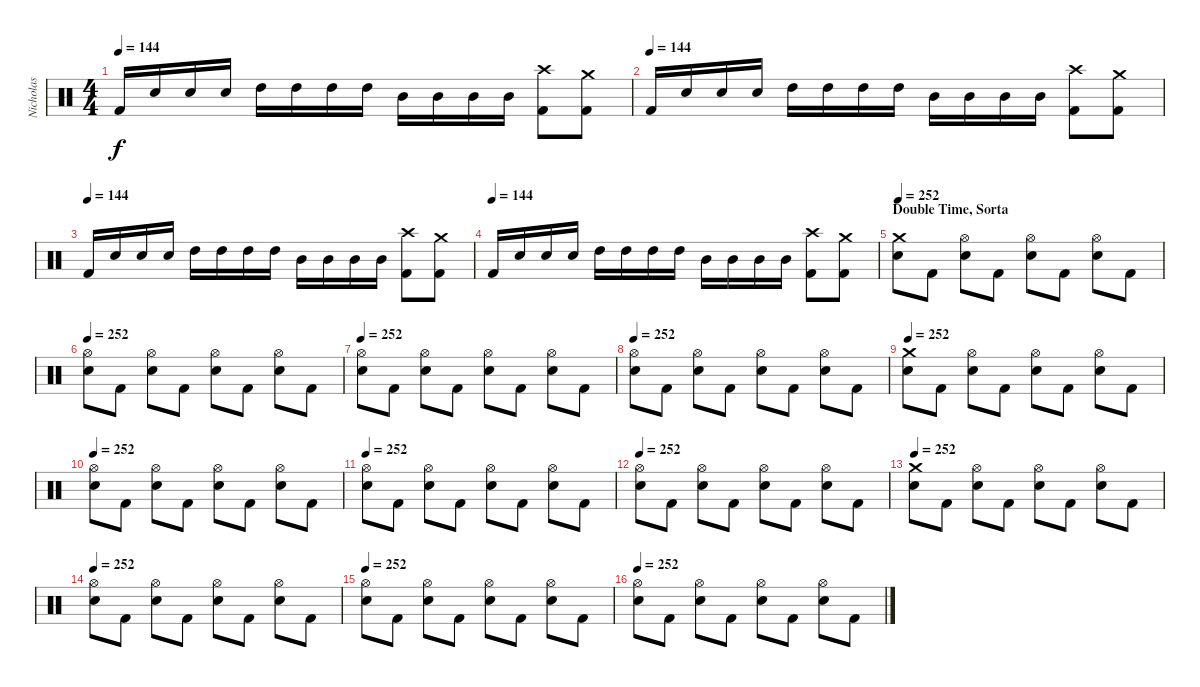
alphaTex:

\track ("Nicholas" "Nicholas") {instrument percussion}
\staff {score}
\articulation defaults
\ts (4 4)
\tempo 144
\clef neutral
\ks c "Kick (hit) 2".16{dy f} "Snare (hit) 2".16 "Snare (hit) 2".16 "Snare (hit) 2".16 "High Tom (hit)".16 "High Tom (hit)".16 "High Tom (hit)".16 "High Tom (hit)".16 "Mid Tom (hit)".16 "Mid Tom (hit)".16 "Mid Tom (hit)".16 "Mid Tom (hit)".16
("Crash high (hit)" "Kick (hit) 2").8 ("Crash medium (hit)" "Kick (hit) 2").8 |
\tempo (144)
"Kick (hit) 2".16 "Snare (hit) 2".16 "Snare (hit) 2".16 "Snare (hit) 2".16 "High Tom (hit)".16 "High Tom (hit)".16 "High Tom (hit)".16 "High Tom (hit)".16 "Mid Tom (hit)".16 "Mid Tom (hit)".16 "Mid Tom (hit)".16 "Mid Tom (hit)".16 ("Crash high (hit)" "Kick (hit) 2").8 ("Crash medium (hit)" "Kick (hit) 2").8 |
\tempo (144)
"Kick (hit) 2".16 "Snare (hit) 2".16 "Snare (hit) 2".16 "Snare (hit) 2".16 "High Tom (hit)".16 "High Tom (hit)".16 "High Tom (hit)".16 "High Tom (hit)".16 "Mid Tom (hit)".16 "Mid Tom (hit)".16 "Mid Tom (hit)".16 "Mid Tom (hit)".16 ("Crash high (hit)" "Kick (hit) 2").8 ("Crash medium (hit)" "Kick (hit) 2").8 |
\tempo (144)
"Kick (hit) 2".16 "Snare (hit) 2".16 "Snare (hit) 2".16 "Snare (hit) 2".16 "High Tom (hit)".16 "High Tom (hit)".16 "High Tom (hit)".16 "High Tom (hit)".16 "Mid Tom (hit)".16 "Mid Tom (hit)".16 "Mid Tom (hit)".16 "Mid Tom (hit)".16 ("Crash high (hit)" "Kick (hit) 2").8 ("Crash medium (hit)" "Kick (hit) 2").8 |
\section ("" "Double Time, Sorta")
\tempo 252
("Crash medium (hit)" "Snare (hit) 2").8 "Kick (hit) 2".8 ("Hi-Hat (open)" "Snare (hit) 2").8 "Kick (hit) 2".8 ("Hi-Hat (open)" "Snare (hit) 2").8 "Kick (hit) 2".8 ("Hi-Hat (open)" "Snare (hit) 2").8 "Kick (hit) 2".8 |
\tempo 252
("Hi-Hat (open)" "Snare (hit) 2").8 "Kick (hit) 2".8 ("Hi-Hat (open)" "Snare (hit) 2").8 "Kick (hit) 2".8 ("Hi-Hat (open)" "Snare (hit) 2").8 "Kick (hit) 2".8 ("Hi-Hat (open)" "Snare (hit) 2").8 "Kick (hit) 2".8 |
\tempo 252
("Hi-Hat (open)" "Snare (hit) 2").8 "Kick (hit) 2".8 ("Hi-Hat (open)" "Snare (hit) 2").8 "Kick (hit) 2".8 ("Hi-Hat (open)" "Snare (hit) 2").8 "Kick (hit) 2".8 ("Hi-Hat (open)" "Snare (hit) 2").8 "Kick (hit) 2".8 |
\tempo 252
("Hi-Hat (open)" "Snare (hit) 2").8 "Kick (hit) 2".8 ("Hi-Hat (open)" "Snare (hit) 2").8 "Kick (hit) 2".8 ("Hi-Hat (open)" "Snare (hit) 2").8 "Kick (hit) 2".8 ("Hi-Hat (open)" "Snare (hit) 2").8 "Kick (hit) 2".8 |
\tempo 252
("Crash medium (hit)" "Snare (hit) 2").8 "Kick (hit) 2".8 ("Hi-Hat (open)" "Snare (hit) 2").8 "Kick (hit) 2".8 ("Hi-Hat (open)" "Snare (hit) 2").8 "Kick (hit) 2".8 ("Hi-Hat (open)" "Snare (hit) 2").8 "Kick (hit) 2".8 |
\tempo 252
("Hi-Hat (open)" "Snare (hit) 2").8 "Kick (hit) 2".8 ("Hi-Hat (open)" "Snare (hit) 2").8 "Kick (hit) 2".8 ("Hi-Hat (open)" "Snare (hit) 2").8 "Kick (hit) 2".8 ("Hi-Hat (open)" "Snare (hit) 2").8 "Kick (hit) 2".8 |
\tempo 252
("Hi-Hat (open)" "Snare (hit) 2").8 "Kick (hit) 2".8 ("Hi-Hat (open)" "Snare (hit) 2").8 "Kick (hit) 2".8 ("Hi-Hat (open)" "Snare (hit) 2").8 "Kick (hit) 2".8 ("Hi-Hat (open)" "Snare (hit) 2").8 "Kick (hit) 2".8 |
\tempo 252
("Hi-Hat (open)" "Snare (hit) 2").8 "Kick (hit) 2".8 ("Hi-Hat (open)" "Snare (hit) 2").8 "Kick (hit) 2".8 ("Hi-Hat (open)" "Snare (hit) 2").8 "Kick (hit) 2".8 ("Hi-Hat (open)" "Snare (hit) 2").8 "Kick (hit) 2".8 |
\tempo 252
("Crash medium (hit)" "Snare (hit) 2").8 "Kick (hit) 2".8 ("Hi-Hat (open)" "Snare (hit) 2").8 "Kick (hit) 2".8 ("Hi-Hat (open)" "Snare (hit) 2").8 "Kick (hit) 2".8 ("Hi-Hat (open)" "Snare (hit) 2").8 "Kick (hit) 2".8 |
\tempo 252
("Hi-Hat (open)" "Snare (hit) 2").8 "Kick (hit) 2".8 ("Hi-Hat (open)" "Snare (hit) 2").8 "Kick (hit) 2".8 ("Hi-Hat (open)" "Snare (hit) 2").8 "Kick (hit) 2".8 ("Hi-Hat (open)" "Snare (hit) 2").8 "Kick (hit) 2".8 |
\tempo 252
("Hi-Hat (open)" "Snare (hit) 2").8 "Kick (hit) 2".8 ("Hi-Hat (open)" "Snare (hit) 2").8 "Kick (hit) 2".8 ("Hi-Hat (open)" "Snare (hit) 2").8 "Kick (hit) 2".8 ("Hi-Hat (open)" "Snare (hit) 2").8 "Kick (hit) 2".8 |
\tempo 252
("Hi-Hat (open)" "Snare (hit) 2").8 "Kick (hit) 2".8 ("Hi-Hat (open)" "Snare (hit) 2").8 "Kick (hit) 2".8 ("Hi-Hat (open)" "Snare (hit) 2").8 "Kick (hit) 2".8 ("Hi-Hat (open)" "Snare (hit) 2").8 "Kick (hit) 2".8
